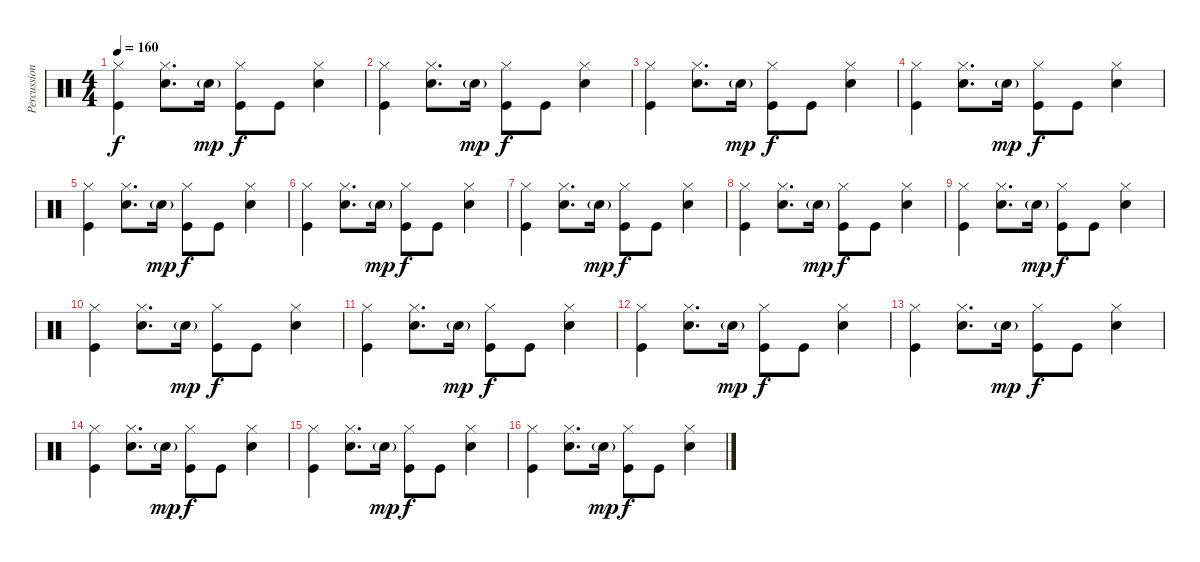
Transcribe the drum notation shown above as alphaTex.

\track ("Percussion" "Percussion") {instrument percussion}
\staff {score}
\articulation defaults
\ts (4 4)
\tempo 160
\clef neutral
\ks c
("Kick (hit)" "Hi-Hat (closed)").4{dy f} ("Snare (hit) 2" "Hi-Hat (closed)").8{d} "Snare (hit) 2"{g}.16{dy mp} ("Kick (hit)" "Hi-Hat (closed)").8{dy f} "Kick (hit)".8 ("Snare (hit) 2" "Hi-Hat (closed)").4 |
("Kick (hit)" "Hi-Hat (closed)").4 ("Snare (hit) 2" "Hi-Hat (closed)").8{d} "Snare (hit) 2"{g}.16{dy mp} ("Kick (hit)" "Hi-Hat (closed)").8{dy f} "Kick (hit)".8 ("Snare (hit) 2" "Hi-Hat (closed)").4 |
("Kick (hit)" "Hi-Hat (closed)").4 ("Snare (hit) 2" "Hi-Hat (closed)").8{d} "Snare (hit) 2"{g}.16{dy mp} ("Kick (hit)" "Hi-Hat (closed)").8{dy f} "Kick (hit)".8 ("Snare (hit) 2" "Hi-Hat (closed)").4 |
("Kick (hit)" "Hi-Hat (closed)").4 ("Snare (hit) 2" "Hi-Hat (closed)").8{d} "Snare (hit) 2"{g}.16{dy mp} ("Kick (hit)" "Hi-Hat (closed)").8{dy f} "Kick (hit)".8 ("Snare (hit) 2" "Hi-Hat (closed)").4 |
("Kick (hit)" "Hi-Hat (closed)").4 ("Snare (hit) 2" "Hi-Hat (closed)").8{d} "Snare (hit) 2"{g}.16{dy mp} ("Kick (hit)" "Hi-Hat (closed)").8{dy f} "Kick (hit)".8 ("Snare (hit) 2" "Hi-Hat (closed)").4 |
("Kick (hit)" "Hi-Hat (closed)").4 ("Snare (hit) 2" "Hi-Hat (closed)").8{d} "Snare (hit) 2"{g}.16{dy mp} ("Kick (hit)" "Hi-Hat (closed)").8{dy f} "Kick (hit)".8 ("Snare (hit) 2" "Hi-Hat (closed)").4 |
("Kick (hit)" "Hi-Hat (closed)").4 ("Snare (hit) 2" "Hi-Hat (closed)").8{d} "Snare (hit) 2"{g}.16{dy mp} ("Kick (hit)" "Hi-Hat (closed)").8{dy f} "Kick (hit)".8 ("Snare (hit) 2" "Hi-Hat (closed)").4 |
("Kick (hit)" "Hi-Hat (closed)").4 ("Snare (hit) 2" "Hi-Hat (closed)").8{d} "Snare (hit) 2"{g}.16{dy mp} ("Kick (hit)" "Hi-Hat (closed)").8{dy f} "Kick (hit)".8 ("Snare (hit) 2" "Hi-Hat (closed)").4 |
("Kick (hit)" "Hi-Hat (closed)").4 ("Snare (hit) 2" "Hi-Hat (closed)").8{d} "Snare (hit) 2"{g}.16{dy mp} ("Kick (hit)" "Hi-Hat (closed)").8{dy f} "Kick (hit)".8 ("Snare (hit) 2" "Hi-Hat (closed)").4 |
("Kick (hit)" "Hi-Hat (closed)").4 ("Snare (hit) 2" "Hi-Hat (closed)").8{d} "Snare (hit) 2"{g}.16{dy mp} ("Kick (hit)" "Hi-Hat (closed)").8{dy f} "Kick (hit)".8 ("Snare (hit) 2" "Hi-Hat (closed)").4 |
("Kick (hit)" "Hi-Hat (closed)").4 ("Snare (hit) 2" "Hi-Hat (closed)").8{d} "Snare (hit) 2"{g}.16{dy mp} ("Kick (hit)" "Hi-Hat (closed)").8{dy f} "Kick (hit)".8 ("Snare (hit) 2" "Hi-Hat (closed)").4 |
("Kick (hit)" "Hi-Hat (closed)").4 ("Snare (hit) 2" "Hi-Hat (closed)").8{d} "Snare (hit) 2"{g}.16{dy mp} ("Kick (hit)" "Hi-Hat (closed)").8{dy f} "Kick (hit)".8 ("Snare (hit) 2" "Hi-Hat (closed)").4 |
("Kick (hit)" "Hi-Hat (closed)").4 ("Snare (hit) 2" "Hi-Hat (closed)").8{d} "Snare (hit) 2"{g}.16{dy mp} ("Kick (hit)" "Hi-Hat (closed)").8{dy f} "Kick (hit)".8 ("Snare (hit) 2" "Hi-Hat (closed)").4 |
("Kick (hit)" "Hi-Hat (closed)").4 ("Snare (hit) 2" "Hi-Hat (closed)").8{d} "Snare (hit) 2"{g}.16{dy mp} ("Kick (hit)" "Hi-Hat (closed)").8{dy f} "Kick (hit)".8 ("Snare (hit) 2" "Hi-Hat (closed)").4 |
("Kick (hit)" "Hi-Hat (closed)").4 ("Snare (hit) 2" "Hi-Hat (closed)").8{d} "Snare (hit) 2"{g}.16{dy mp} ("Kick (hit)" "Hi-Hat (closed)").8{dy f} "Kick (hit)".8 ("Snare (hit) 2" "Hi-Hat (closed)").4 |
("Kick (hit)" "Hi-Hat (closed)").4 ("Snare (hit) 2" "Hi-Hat (closed)").8{d} "Snare (hit) 2"{g}.16{dy mp} ("Kick (hit)" "Hi-Hat (closed)").8{dy f} "Kick (hit)".8 ("Snare (hit) 2" "Hi-Hat (closed)").4
